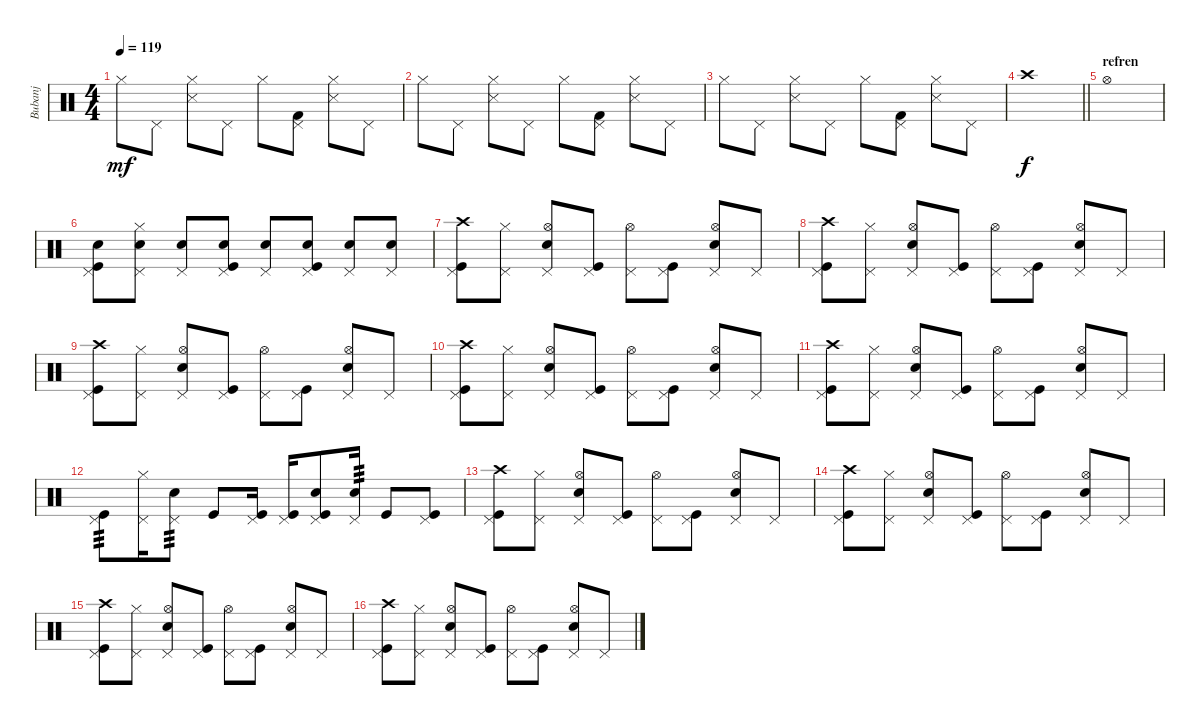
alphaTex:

\track ("Bubanj" "Bubanj") {instrument percussion}
\staff {score}
\articulation defaults
\ts (4 4)
\tempo 119
\clef neutral
\ks c "Hi-Hat (closed)".8{dy mf} "Pedal Hi-Hat (hit)".8
("Snare (side stick) 3" "Hi-Hat (closed)").8 "Pedal Hi-Hat (hit)".8 "Hi-Hat (closed)".8 ("Kick (hit) 2" "Pedal Hi-Hat (hit)").8 ("Snare (side stick) 3" "Hi-Hat (closed)").8 "Pedal Hi-Hat (hit)".8 |
"Hi-Hat (closed)".8 "Pedal Hi-Hat (hit)".8 ("Snare (side stick) 3" "Hi-Hat (closed)").8 "Pedal Hi-Hat (hit)".8 "Hi-Hat (closed)".8 ("Kick (hit) 2" "Pedal Hi-Hat (hit)").8 ("Snare (side stick) 3" "Hi-Hat (closed)").8 "Pedal Hi-Hat (hit)".8 |
"Hi-Hat (closed)".8 "Pedal Hi-Hat (hit)".8 ("Snare (side stick) 3" "Hi-Hat (closed)").8 "Pedal Hi-Hat (hit)".8 "Hi-Hat (closed)".8 ("Kick (hit) 2" "Pedal Hi-Hat (hit)").8 ("Snare (side stick) 3" "Hi-Hat (closed)").8 "Pedal Hi-Hat (hit)".8 |
\barLineRight lightlight "Crash high (hit)".1{dy f}
|
\section ("" "refren")
"Hi-Hat (open)".1 |
("Pedal Hi-Hat (hit)" "Electric Snare (hit)" "Kick (hit)").8 ("Pedal Hi-Hat (hit)" "Electric Snare (hit)" "Hi-Hat (closed)").8 ("Pedal Hi-Hat (hit)" "Electric Snare (hit)").8 ("Pedal Hi-Hat (hit)" "Electric Snare (hit)" "Kick (hit)").8 ("Pedal Hi-Hat (hit)" "Electric Snare (hit)").8 ("Pedal Hi-Hat (hit)" "Electric Snare (hit)" "Kick (hit)").8 ("Pedal Hi-Hat (hit)" "Electric Snare (hit)").8 ("Pedal Hi-Hat (hit)" "Electric Snare (hit)").8 |
("Pedal Hi-Hat (hit)" "Crash high (hit)" "Kick (hit)").8 ("Pedal Hi-Hat (hit)" "Hi-Hat (closed)").8 ("Pedal Hi-Hat (hit)" "Hi-Hat (open)" "Electric Snare (hit)").8 ("Pedal Hi-Hat (hit)" "Kick (hit)").8 ("Pedal Hi-Hat (hit)" "Hi-Hat (open)").8 ("Pedal Hi-Hat (hit)" "Kick (hit)").8 ("Pedal Hi-Hat (hit)" "Hi-Hat (open)" "Electric Snare (hit)").8 "Pedal Hi-Hat (hit)".8 |
("Pedal Hi-Hat (hit)" "Crash high (hit)" "Kick (hit)").8 ("Pedal Hi-Hat (hit)" "Hi-Hat (closed)").8 ("Pedal Hi-Hat (hit)" "Hi-Hat (open)" "Electric Snare (hit)").8 ("Pedal Hi-Hat (hit)" "Kick (hit)").8 ("Pedal Hi-Hat (hit)" "Hi-Hat (open)").8 ("Pedal Hi-Hat (hit)" "Kick (hit)").8 ("Pedal Hi-Hat (hit)" "Hi-Hat (open)" "Electric Snare (hit)").8 "Pedal Hi-Hat (hit)".8 |
("Pedal Hi-Hat (hit)" "Crash high (hit)" "Kick (hit)").8 ("Pedal Hi-Hat (hit)" "Hi-Hat (closed)").8 ("Pedal Hi-Hat (hit)" "Hi-Hat (open)" "Electric Snare (hit)").8 ("Pedal Hi-Hat (hit)" "Kick (hit)").8 ("Pedal Hi-Hat (hit)" "Hi-Hat (open)").8 ("Pedal Hi-Hat (hit)" "Kick (hit)").8 ("Pedal Hi-Hat (hit)" "Hi-Hat (open)" "Electric Snare (hit)").8 "Pedal Hi-Hat (hit)".8 |
("Pedal Hi-Hat (hit)" "Crash high (hit)" "Kick (hit)").8 ("Pedal Hi-Hat (hit)" "Hi-Hat (closed)").8 ("Pedal Hi-Hat (hit)" "Hi-Hat (open)" "Electric Snare (hit)").8 ("Pedal Hi-Hat (hit)" "Kick (hit)").8 ("Pedal Hi-Hat (hit)" "Hi-Hat (open)").8 ("Pedal Hi-Hat (hit)" "Kick (hit)").8 ("Pedal Hi-Hat (hit)" "Hi-Hat (open)" "Electric Snare (hit)").8 "Pedal Hi-Hat (hit)".8 |
("Pedal Hi-Hat (hit)" "Crash high (hit)" "Kick (hit)").8 ("Pedal Hi-Hat (hit)" "Hi-Hat (closed)").8 ("Pedal Hi-Hat (hit)" "Hi-Hat (open)" "Electric Snare (hit)").8 ("Pedal Hi-Hat (hit)" "Kick (hit)").8 ("Pedal Hi-Hat (hit)" "Hi-Hat (open)").8 ("Pedal Hi-Hat (hit)" "Kick (hit)").8 ("Pedal Hi-Hat (hit)" "Hi-Hat (open)" "Electric Snare (hit)").8 "Pedal Hi-Hat (hit)".8 |
("Pedal Hi-Hat (hit)" "Kick (hit)").8{tp 3} ("Pedal Hi-Hat (hit)" "Hi-Hat (closed)").16 ("Pedal Hi-Hat (hit)" "Electric Snare (hit)").8{tp 3} "Kick (hit)".8 ("Pedal Hi-Hat (hit)" "Kick (hit)").16 ("Pedal Hi-Hat (hit)" "Kick (hit)").16 ("Pedal Hi-Hat (hit)" "Electric Snare (hit)" "Kick (hit)").8 ("Pedal Hi-Hat (hit)" "Electric Snare (hit)").16{tp 3} "Kick (hit)".8 ("Pedal Hi-Hat (hit)" "Kick (hit)").8 |
("Pedal Hi-Hat (hit)" "Crash high (hit)" "Kick (hit)").8 ("Pedal Hi-Hat (hit)" "Hi-Hat (closed)").8 ("Pedal Hi-Hat (hit)" "Hi-Hat (open)" "Electric Snare (hit)").8 ("Pedal Hi-Hat (hit)" "Kick (hit)").8 ("Pedal Hi-Hat (hit)" "Hi-Hat (open)").8 ("Pedal Hi-Hat (hit)" "Kick (hit)").8 ("Pedal Hi-Hat (hit)" "Hi-Hat (open)" "Electric Snare (hit)").8 "Pedal Hi-Hat (hit)".8 |
("Pedal Hi-Hat (hit)" "Crash high (hit)" "Kick (hit)").8 ("Pedal Hi-Hat (hit)" "Hi-Hat (closed)").8 ("Pedal Hi-Hat (hit)" "Hi-Hat (open)" "Electric Snare (hit)").8 ("Pedal Hi-Hat (hit)" "Kick (hit)").8 ("Pedal Hi-Hat (hit)" "Hi-Hat (open)").8 ("Pedal Hi-Hat (hit)" "Kick (hit)").8 ("Pedal Hi-Hat (hit)" "Hi-Hat (open)" "Electric Snare (hit)").8 "Pedal Hi-Hat (hit)".8 |
("Pedal Hi-Hat (hit)" "Crash high (hit)" "Kick (hit)").8 ("Pedal Hi-Hat (hit)" "Hi-Hat (closed)").8 ("Pedal Hi-Hat (hit)" "Hi-Hat (open)" "Electric Snare (hit)").8 ("Pedal Hi-Hat (hit)" "Kick (hit)").8 ("Pedal Hi-Hat (hit)" "Hi-Hat (open)").8 ("Pedal Hi-Hat (hit)" "Kick (hit)").8 ("Pedal Hi-Hat (hit)" "Hi-Hat (open)" "Electric Snare (hit)").8 "Pedal Hi-Hat (hit)".8 |
("Pedal Hi-Hat (hit)" "Crash high (hit)" "Kick (hit)").8 ("Pedal Hi-Hat (hit)" "Hi-Hat (closed)").8 ("Pedal Hi-Hat (hit)" "Hi-Hat (open)" "Electric Snare (hit)").8 ("Pedal Hi-Hat (hit)" "Kick (hit)").8 ("Pedal Hi-Hat (hit)" "Hi-Hat (open)").8 ("Pedal Hi-Hat (hit)" "Kick (hit)").8 ("Pedal Hi-Hat (hit)" "Hi-Hat (open)" "Electric Snare (hit)").8 "Pedal Hi-Hat (hit)".8
